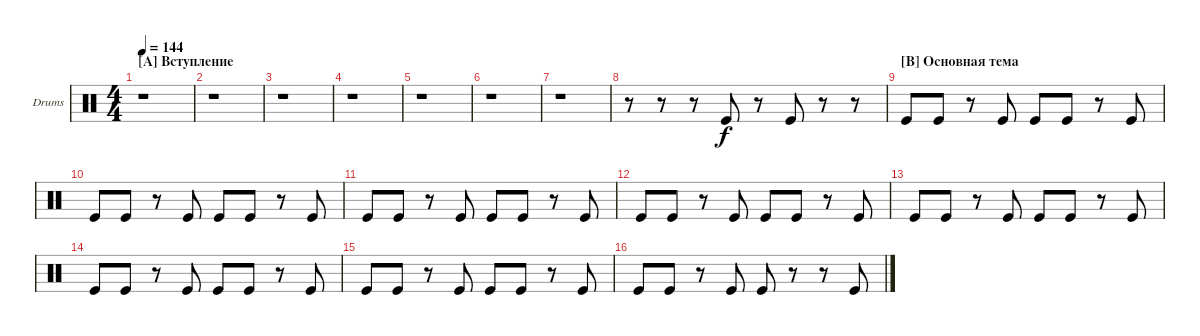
\defaultSystemsLayout 4
\bracketExtendMode groupsimilarinstruments
\firstSystemTrackNameOrientation horizontal
\otherSystemsTrackNameOrientation horizontal
\track ("Kick" "Drums") {instrument percussion}
\staff {score}
\articulation defaults
\ts (4 4)
\section ("A" "Вступление")
\tempo 144
\clef neutral
\scale
0.472222
\ks c
r.1{dy f} |
\scale
0.263889 r.1 |
\scale
0.263889 r.1 |
\scale
0.333333 r.1 |
\scale
0.333333 r.1 |
\scale
0.333333 r.1 |
r.1 |
r.8 r.8 r.8 "Kick (hit)".8 r.8 "Kick (hit)".8 r.8 r.8 |
\section ("B" "Основная тема ")
"Kick (hit)".8 "Kick (hit)".8 r.8 "Kick (hit)".8 "Kick (hit)".8 "Kick (hit)".8 r.8 "Kick (hit)".8 |
"Kick (hit)".8 "Kick (hit)".8 r.8 "Kick (hit)".8 "Kick (hit)".8 "Kick (hit)".8 r.8 "Kick (hit)".8 |
"Kick (hit)".8 "Kick (hit)".8 r.8 "Kick (hit)".8 "Kick (hit)".8 "Kick (hit)".8 r.8 "Kick (hit)".8 |
"Kick (hit)".8 "Kick (hit)".8 r.8 "Kick (hit)".8 "Kick (hit)".8 "Kick (hit)".8 r.8 "Kick (hit)".8 |
"Kick (hit)".8 "Kick (hit)".8 r.8 "Kick (hit)".8 "Kick (hit)".8 "Kick (hit)".8 r.8 "Kick (hit)".8 |
"Kick (hit)".8 "Kick (hit)".8 r.8 "Kick (hit)".8 "Kick (hit)".8 "Kick (hit)".8 r.8 "Kick (hit)".8 |
"Kick (hit)".8 "Kick (hit)".8 r.8 "Kick (hit)".8 "Kick (hit)".8 "Kick (hit)".8 r.8 "Kick (hit)".8 |
"Kick (hit)".8 "Kick (hit)".8 r.8 "Kick (hit)".8 "Kick (hit)".8 r.8 r.8 "Kick (hit)".8
